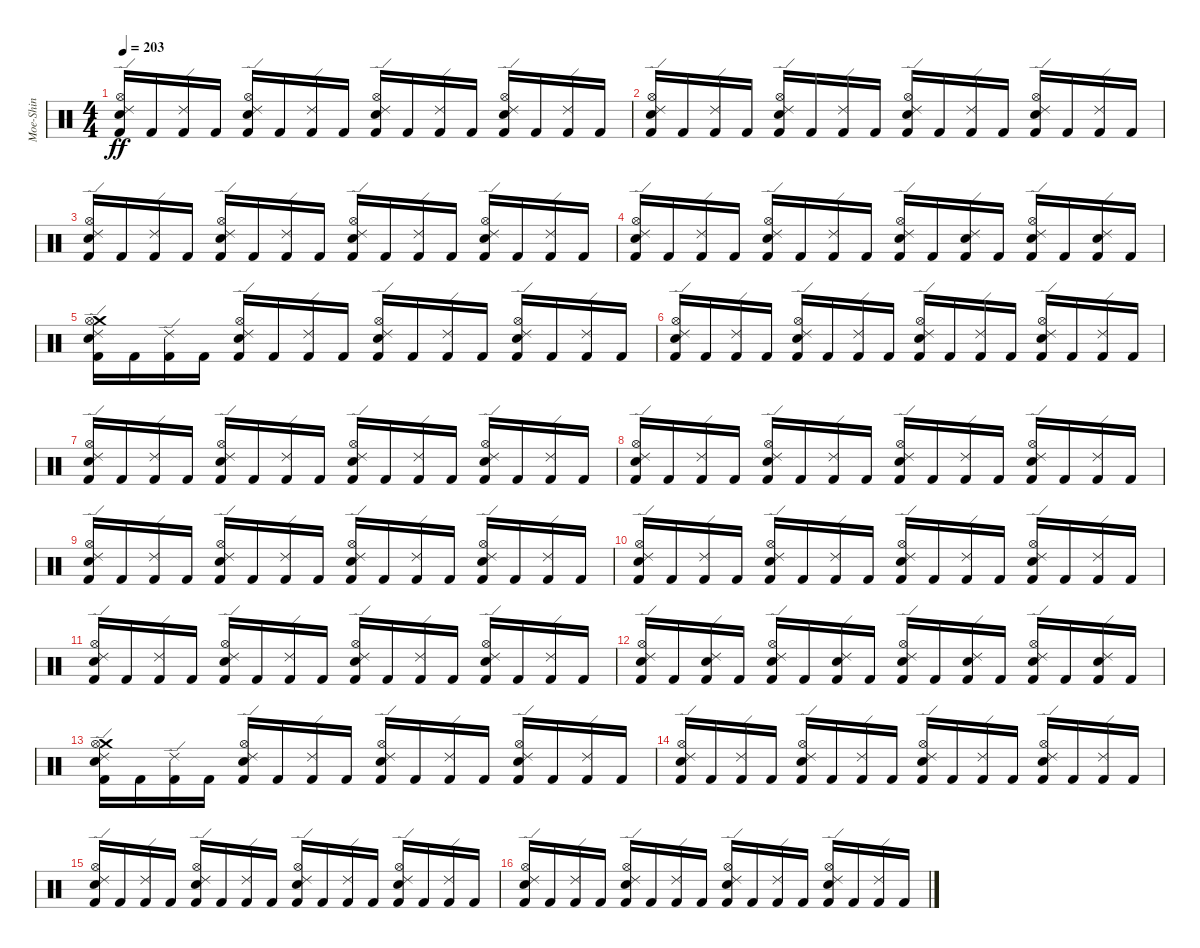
\track ("Moe-Shin" "Moe-Shin") {instrument percussion}
\staff {score}
\articulation defaults
\ts (4 4)
\tempo 203
\clef neutral
\ks c
("Kick (hit) 2" "Ride (edge) 2" "Hi-Hat (open)" "Snare (hit) 2").16{dy ff} "Kick (hit) 2".16 ("Ride (edge) 2" "Kick (hit) 2").16 "Kick (hit) 2".16 ("Kick (hit) 2" "Ride (edge) 2" "Hi-Hat (open)" "Snare (hit) 2").16 "Kick (hit) 2".16 ("Ride (edge) 2" "Kick (hit) 2").16 "Kick (hit) 2".16 ("Hi-Hat (open)" "Ride (edge) 2" "Kick (hit) 2" "Snare (hit) 2").16 "Kick (hit) 2".16 ("Ride (edge) 2" "Kick (hit) 2").16 "Kick (hit) 2".16 ("Snare (hit) 2" "Hi-Hat (open)" "Kick (hit) 2" "Ride (edge) 2").16 "Kick (hit) 2".16 ("Ride (edge) 2" "Kick (hit) 2").16 "Kick (hit) 2".16 |
("Ride (edge) 2" "Snare (hit) 2" "Hi-Hat (open)" "Kick (hit) 2").16 "Kick (hit) 2".16 ("Kick (hit) 2" "Ride (edge) 2").16 "Kick (hit) 2".16 ("Kick (hit) 2" "Ride (edge) 2" "Hi-Hat (open)" "Snare (hit) 2").16 "Kick (hit) 2".16 ("Ride (edge) 2" "Kick (hit) 2").16 "Kick (hit) 2".16 ("Snare (hit) 2" "Ride (edge) 2" "Hi-Hat (open)" "Kick (hit) 2").16 "Kick (hit) 2".16 ("Ride (edge) 2" "Kick (hit) 2").16 "Kick (hit) 2".16 ("Kick (hit) 2" "Ride (edge) 2" "Hi-Hat (open)" "Snare (hit) 2").16 "Kick (hit) 2".16 ("Kick (hit) 2" "Ride (edge) 2").16 "Kick (hit) 2".16 |
("Snare (hit) 2" "Hi-Hat (open)" "Kick (hit) 2" "Ride (edge) 2").16 "Kick (hit) 2".16 ("Ride (edge) 2" "Kick (hit) 2").16 "Kick (hit) 2".16 ("Hi-Hat (open)" "Ride (edge) 2" "Snare (hit) 2" "Kick (hit) 2").16 "Kick (hit) 2".16 ("Ride (edge) 2" "Kick (hit) 2").16 "Kick (hit) 2".16 ("Snare (hit) 2" "Kick (hit) 2" "Ride (edge) 2" "Hi-Hat (open)").16 "Kick (hit) 2".16 ("Ride (edge) 2" "Kick (hit) 2").16 "Kick (hit) 2".16 ("Snare (hit) 2" "Hi-Hat (open)" "Kick (hit) 2" "Ride (edge) 2").16 "Kick (hit) 2".16 ("Kick (hit) 2" "Ride (edge) 2").16 "Kick (hit) 2".16 |
("Ride (edge) 2" "Kick (hit) 2" "Hi-Hat (open)" "Snare (hit) 2").16 "Kick (hit) 2".16 ("Kick (hit) 2" "Ride (edge) 2").16 "Kick (hit) 2".16 ("Snare (hit) 2" "Ride (edge) 2" "Hi-Hat (open)" "Kick (hit) 2").16 "Kick (hit) 2".16 ("Ride (edge) 2" "Kick (hit) 2").16 "Kick (hit) 2".16 ("Kick (hit) 2" "Hi-Hat (open)" "Ride (edge) 2" "Snare (hit) 2").16 "Kick (hit) 2".16 ("Snare (hit) 2" "Ride (edge) 2" "Kick (hit) 2").16 "Kick (hit) 2".16 ("Snare (hit) 2" "Kick (hit) 2" "Hi-Hat (open)" "Ride (edge) 2").16 "Kick (hit) 2".16 ("Snare (hit) 2" "Ride (edge) 2" "Kick (hit) 2").16 "Kick (hit) 2".16 |
("Crash medium (hit)" "Snare (hit) 2" "Ride (edge) 2" "Hi-Hat (open)" "Kick (hit) 2").16 "Kick (hit) 2".16 ("Ride (edge) 2" "Kick (hit) 2").16 "Kick (hit) 2".16 ("Hi-Hat (open)" "Snare (hit) 2" "Kick (hit) 2" "Ride (edge) 2").16 "Kick (hit) 2".16 ("Kick (hit) 2" "Ride (edge) 2").16 "Kick (hit) 2".16 ("Hi-Hat (open)" "Ride (edge) 2" "Snare (hit) 2" "Kick (hit) 2").16 "Kick (hit) 2".16 ("Ride (edge) 2" "Kick (hit) 2").16 "Kick (hit) 2".16 ("Ride (edge) 2" "Hi-Hat (open)" "Snare (hit) 2" "Kick (hit) 2").16 "Kick (hit) 2".16 ("Ride (edge) 2" "Kick (hit) 2").16 "Kick (hit) 2".16 |
("Ride (edge) 2" "Snare (hit) 2" "Kick (hit) 2" "Hi-Hat (open)").16 "Kick (hit) 2".16 ("Kick (hit) 2" "Ride (edge) 2").16 "Kick (hit) 2".16 ("Ride (edge) 2" "Kick (hit) 2" "Hi-Hat (open)" "Snare (hit) 2").16 "Kick (hit) 2".16 ("Ride (edge) 2" "Kick (hit) 2").16 "Kick (hit) 2".16 ("Ride (edge) 2" "Snare (hit) 2" "Hi-Hat (open)" "Kick (hit) 2").16 "Kick (hit) 2".16 ("Kick (hit) 2" "Ride (edge) 2").16 "Kick (hit) 2".16 ("Snare (hit) 2" "Ride (edge) 2" "Hi-Hat (open)" "Kick (hit) 2").16 "Kick (hit) 2".16 ("Ride (edge) 2" "Kick (hit) 2").16 "Kick (hit) 2".16 |
("Kick (hit) 2" "Ride (edge) 2" "Snare (hit) 2" "Hi-Hat (open)").16 "Kick (hit) 2".16 ("Ride (edge) 2" "Kick (hit) 2").16 "Kick (hit) 2".16 ("Kick (hit) 2" "Snare (hit) 2" "Ride (edge) 2" "Hi-Hat (open)").16 "Kick (hit) 2".16 ("Kick (hit) 2" "Ride (edge) 2").16 "Kick (hit) 2".16 ("Kick (hit) 2" "Hi-Hat (open)" "Ride (edge) 2" "Snare (hit) 2").16 "Kick (hit) 2".16 ("Kick (hit) 2" "Ride (edge) 2").16 "Kick (hit) 2".16 ("Kick (hit) 2" "Hi-Hat (open)" "Ride (edge) 2" "Snare (hit) 2").16 "Kick (hit) 2".16 ("Kick (hit) 2" "Ride (edge) 2").16 "Kick (hit) 2".16 |
("Hi-Hat (open)" "Kick (hit) 2" "Ride (edge) 2" "Snare (hit) 2").16 "Kick (hit) 2".16 ("Kick (hit) 2" "Ride (edge) 2").16 "Kick (hit) 2".16 ("Ride (edge) 2" "Kick (hit) 2" "Snare (hit) 2" "Hi-Hat (open)").16 "Kick (hit) 2".16 ("Ride (edge) 2" "Kick (hit) 2").16 "Kick (hit) 2".16 ("Ride (edge) 2" "Kick (hit) 2" "Hi-Hat (open)" "Snare (hit) 2").16 "Kick (hit) 2".16 ("Kick (hit) 2" "Ride (edge) 2").16 "Kick (hit) 2".16 ("Kick (hit) 2" "Hi-Hat (open)" "Ride (edge) 2" "Snare (hit) 2").16 "Kick (hit) 2".16 ("Ride (edge) 2" "Kick (hit) 2").16 "Kick (hit) 2".16 |
("Snare (hit) 2" "Ride (edge) 2" "Hi-Hat (open)" "Kick (hit) 2").16 "Kick (hit) 2".16 ("Kick (hit) 2" "Ride (edge) 2").16 "Kick (hit) 2".16 ("Ride (edge) 2" "Snare (hit) 2" "Hi-Hat (open)" "Kick (hit) 2").16 "Kick (hit) 2".16 ("Kick (hit) 2" "Ride (edge) 2").16 "Kick (hit) 2".16 ("Kick (hit) 2" "Hi-Hat (open)" "Snare (hit) 2" "Ride (edge) 2").16 "Kick (hit) 2".16 ("Kick (hit) 2" "Ride (edge) 2").16 "Kick (hit) 2".16 ("Ride (edge) 2" "Kick (hit) 2" "Hi-Hat (open)" "Snare (hit) 2").16 "Kick (hit) 2".16 ("Kick (hit) 2" "Ride (edge) 2").16 "Kick (hit) 2".16 |
("Hi-Hat (open)" "Ride (edge) 2" "Kick (hit) 2" "Snare (hit) 2").16 "Kick (hit) 2".16 ("Ride (edge) 2" "Kick (hit) 2").16 "Kick (hit) 2".16 ("Kick (hit) 2" "Hi-Hat (open)" "Ride (edge) 2" "Snare (hit) 2").16 "Kick (hit) 2".16 ("Kick (hit) 2" "Ride (edge) 2").16 "Kick (hit) 2".16 ("Kick (hit) 2" "Snare (hit) 2" "Ride (edge) 2" "Hi-Hat (open)").16 "Kick (hit) 2".16 ("Ride (edge) 2" "Kick (hit) 2").16 "Kick (hit) 2".16 ("Ride (edge) 2" "Kick (hit) 2" "Hi-Hat (open)" "Snare (hit) 2").16 "Kick (hit) 2".16 ("Kick (hit) 2" "Ride (edge) 2").16 "Kick (hit) 2".16 |
("Snare (hit) 2" "Hi-Hat (open)" "Ride (edge) 2" "Kick (hit) 2").16 "Kick (hit) 2".16 ("Kick (hit) 2" "Ride (edge) 2").16 "Kick (hit) 2".16 ("Ride (edge) 2" "Hi-Hat (open)" "Kick (hit) 2" "Snare (hit) 2").16 "Kick (hit) 2".16 ("Kick (hit) 2" "Ride (edge) 2").16 "Kick (hit) 2".16 ("Hi-Hat (open)" "Ride (edge) 2" "Kick (hit) 2" "Snare (hit) 2").16 "Kick (hit) 2".16 ("Ride (edge) 2" "Kick (hit) 2").16 "Kick (hit) 2".16 ("Hi-Hat (open)" "Snare (hit) 2" "Ride (edge) 2" "Kick (hit) 2").16 "Kick (hit) 2".16 ("Ride (edge) 2" "Kick (hit) 2").16 "Kick (hit) 2".16 |
("Ride (edge) 2" "Snare (hit) 2" "Hi-Hat (open)" "Kick (hit) 2").16 "Kick (hit) 2".16 ("Snare (hit) 2" "Ride (edge) 2" "Kick (hit) 2").16 "Kick (hit) 2".16 ("Snare (hit) 2" "Kick (hit) 2" "Ride (edge) 2" "Hi-Hat (open)").16 "Kick (hit) 2".16 ("Kick (hit) 2" "Snare (hit) 2" "Ride (edge) 2").16 "Kick (hit) 2".16 ("Snare (hit) 2" "Hi-Hat (open)" "Ride (edge) 2" "Kick (hit) 2").16 "Kick (hit) 2".16 ("Snare (hit) 2" "Kick (hit) 2" "Ride (edge) 2").16 "Kick (hit) 2".16 ("Kick (hit) 2" "Hi-Hat (open)" "Ride (edge) 2" "Snare (hit) 2").16 "Kick (hit) 2".16 ("Kick (hit) 2" "Ride (edge) 2" "Snare (hit) 2").16 "Kick (hit) 2".16 |
("Crash medium (hit)" "Hi-Hat (open)" "Snare (hit) 2" "Ride (edge) 2" "Kick (hit) 2").16 "Kick (hit) 2".16 ("Kick (hit) 2" "Ride (edge) 2").16 "Kick (hit) 2".16 ("Hi-Hat (open)" "Kick (hit) 2" "Ride (edge) 2" "Snare (hit) 2").16 "Kick (hit) 2".16 ("Kick (hit) 2" "Ride (edge) 2").16 "Kick (hit) 2".16 ("Hi-Hat (open)" "Ride (edge) 2" "Kick (hit) 2" "Snare (hit) 2").16 "Kick (hit) 2".16 ("Ride (edge) 2" "Kick (hit) 2").16 "Kick (hit) 2".16 ("Snare (hit) 2" "Kick (hit) 2" "Ride (edge) 2" "Hi-Hat (open)").16 "Kick (hit) 2".16 ("Kick (hit) 2" "Ride (edge) 2").16 "Kick (hit) 2".16 |
("Ride (edge) 2" "Kick (hit) 2" "Hi-Hat (open)" "Snare (hit) 2").16 "Kick (hit) 2".16 ("Ride (edge) 2" "Kick (hit) 2").16 "Kick (hit) 2".16 ("Kick (hit) 2" "Ride (edge) 2" "Hi-Hat (open)" "Snare (hit) 2").16 "Kick (hit) 2".16 ("Kick (hit) 2" "Ride (edge) 2").16 "Kick (hit) 2".16 ("Snare (hit) 2" "Kick (hit) 2" "Ride (edge) 2" "Hi-Hat (open)").16 "Kick (hit) 2".16 ("Kick (hit) 2" "Ride (edge) 2").16 "Kick (hit) 2".16 ("Hi-Hat (open)" "Kick (hit) 2" "Snare (hit) 2" "Ride (edge) 2").16 "Kick (hit) 2".16 ("Ride (edge) 2" "Kick (hit) 2").16 "Kick (hit) 2".16 |
("Kick (hit) 2" "Hi-Hat (open)" "Snare (hit) 2" "Ride (edge) 2").16 "Kick (hit) 2".16 ("Ride (edge) 2" "Kick (hit) 2").16 "Kick (hit) 2".16 ("Kick (hit) 2" "Hi-Hat (open)" "Ride (edge) 2" "Snare (hit) 2").16 "Kick (hit) 2".16 ("Ride (edge) 2" "Kick (hit) 2").16 "Kick (hit) 2".16 ("Hi-Hat (open)" "Ride (edge) 2" "Snare (hit) 2" "Kick (hit) 2").16 "Kick (hit) 2".16 ("Kick (hit) 2" "Ride (edge) 2").16 "Kick (hit) 2".16 ("Snare (hit) 2" "Kick (hit) 2" "Ride (edge) 2" "Hi-Hat (open)").16 "Kick (hit) 2".16 ("Ride (edge) 2" "Kick (hit) 2").16 "Kick (hit) 2".16 |
("Ride (edge) 2" "Kick (hit) 2" "Snare (hit) 2" "Hi-Hat (open)").16 "Kick (hit) 2".16 ("Kick (hit) 2" "Ride (edge) 2").16 "Kick (hit) 2".16 ("Kick (hit) 2" "Hi-Hat (open)" "Ride (edge) 2" "Snare (hit) 2").16 "Kick (hit) 2".16 ("Kick (hit) 2" "Ride (edge) 2").16 "Kick (hit) 2".16 ("Kick (hit) 2" "Snare (hit) 2" "Ride (edge) 2" "Hi-Hat (open)").16 "Kick (hit) 2".16 ("Kick (hit) 2" "Ride (edge) 2").16 "Kick (hit) 2".16 ("Snare (hit) 2" "Ride (edge) 2" "Hi-Hat (open)" "Kick (hit) 2").16 "Kick (hit) 2".16 ("Ride (edge) 2" "Kick (hit) 2").16 "Kick (hit) 2".16
